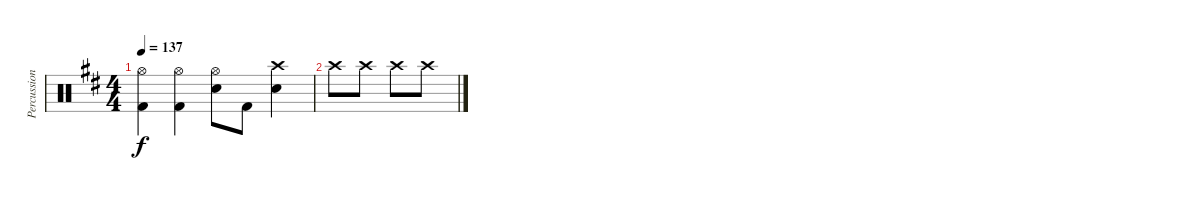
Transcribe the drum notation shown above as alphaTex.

\track ("Percussion" "Percussion") {instrument percussion}
\staff {score}
\articulation defaults
\ts (4 4)
\tempo 137
\clef neutral
\ks d
("Hi-Hat (open)" "Kick (hit) 2").4{dy f} ("Hi-Hat (open)" "Kick (hit) 2").4 ("Hi-Hat (open)" "Snare (hit) 2").8 "Kick (hit) 2".8 ("Crash high (hit)" "Snare (hit) 2").4 |
"Crash high (hit)".8 "Crash high (hit)".8 "Crash high (hit)".8 "Crash high (hit)".8
